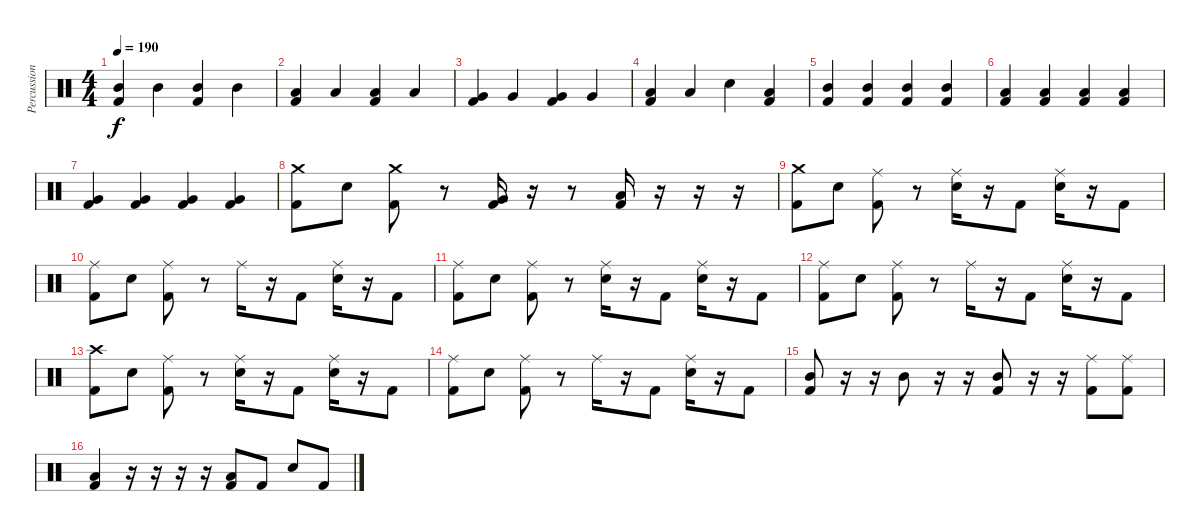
\track ("Percussion" "Percussion") {instrument percussion}
\staff {score}
\articulation defaults
\ts (4 4)
\tempo 190
\clef neutral
\ks c
("Mid Tom (hit)" "Kick (hit) 2").4{dy f} "Mid Tom (hit)".4 ("Mid Tom (hit)" "Kick (hit) 2").4 "Mid Tom (hit)".4 |
("Low Tom (hit)" "Kick (hit) 2").4 "Low Tom (hit)".4 ("Low Tom (hit)" "Kick (hit) 2").4 "Low Tom (hit)".4 |
("Very Low Tom (hit)" "Kick (hit) 2").4 "Very Low Tom (hit)".4 ("Very Low Tom (hit)" "Kick (hit) 2").4 "Very Low Tom (hit)".4 |
("Low Floor Tom (hit)" "Kick (hit) 2").4 "Low Floor Tom (hit)".4 "Electric Snare (hit)".4 ("Low Floor Tom (hit)" "Kick (hit) 2").4 |
("Mid Tom (hit)" "Kick (hit) 2").4 ("Mid Tom (hit)" "Kick (hit) 2").4 ("Mid Tom (hit)" "Kick (hit) 2").4 ("Mid Tom (hit)" "Kick (hit) 2").4 |
("Low Tom (hit)" "Kick (hit) 2").4 ("Low Tom (hit)" "Kick (hit) 2").4 ("Low Tom (hit)" "Kick (hit) 2").4 ("Low Tom (hit)" "Kick (hit) 2").4 |
("Very Low Tom (hit)" "Kick (hit) 2").4 ("Very Low Tom (hit)" "Kick (hit) 2").4 ("Very Low Tom (hit)" "Kick (hit) 2").4 ("Very Low Tom (hit)" "Kick (hit) 2").4 |
("Crash medium (hit)" "Kick (hit) 2").8 "Electric Snare (hit)".8 ("Crash medium (hit)" "Kick (hit) 2").8 r.8 ("Very Low Tom (hit)" "Kick (hit) 2").16 r.16 r.8 ("Low Floor Tom (hit)" "Kick (hit) 2").16 r.16 r.16 r.16 |
("Crash medium (hit)" "Kick (hit) 2").8 "Electric Snare (hit)".8 ("Ride (middle)" "Kick (hit) 2").8 r.8 ("Ride (middle)" "Electric Snare (hit)").16 r.16 "Kick (hit) 2".8 ("Ride (middle)" "Electric Snare (hit)").16 r.16 "Kick (hit) 2".8 |
("Ride (middle)" "Kick (hit) 2").8 "Electric Snare (hit)".8 ("Ride (middle)" "Kick (hit) 2").8 r.8 "Ride (middle)".16 r.16 "Kick (hit) 2".8 ("Ride (middle)" "Electric Snare (hit)").16 r.16 "Kick (hit) 2".8 |
("Ride (middle)" "Kick (hit) 2").8 "Electric Snare (hit)".8 ("Ride (middle)" "Kick (hit) 2").8 r.8 ("Ride (middle)" "Electric Snare (hit)").16 r.16 "Kick (hit) 2".8 ("Ride (middle)" "Electric Snare (hit)").16 r.16 "Kick (hit) 2".8 |
("Ride (middle)" "Kick (hit) 2").8 "Electric Snare (hit)".8 ("Ride (middle)" "Kick (hit) 2").8 r.8 "Ride (middle)".16 r.16 "Kick (hit) 2".8 ("Ride (middle)" "Electric Snare (hit)").16 r.16 "Kick (hit) 2".8 |
("Crash high (hit)" "Kick (hit) 2").8 "Electric Snare (hit)".8 ("Ride (middle)" "Kick (hit) 2").8 r.8 ("Ride (middle)" "Electric Snare (hit)").16 r.16 "Kick (hit) 2".8 ("Ride (middle)" "Electric Snare (hit)").16 r.16 "Kick (hit) 2".8 |
("Ride (middle)" "Kick (hit) 2").8 "Electric Snare (hit)".8 ("Ride (middle)" "Kick (hit) 2").8 r.8 "Ride (middle)".16 r.16 "Kick (hit) 2".8 ("Ride (middle)" "Electric Snare (hit)").16 r.16 "Kick (hit) 2".8 |
("Mid Tom (hit)" "Kick (hit) 2").8 r.16 r.16 "Mid Tom (hit)".8 r.16 r.16 ("Mid Tom (hit)" "Kick (hit) 2").8 r.16 r.16 ("Ride (middle)" "Kick (hit) 2").8 ("Ride (middle)" "Kick (hit) 2").8 |
("Low Tom (hit)" "Kick (hit) 2").4 r.16 r.16 r.16 r.16 ("Low Tom (hit)" "Kick (hit) 2").8 "Kick (hit) 2".8 "Electric Snare (hit)".8 "Kick (hit) 2".8
